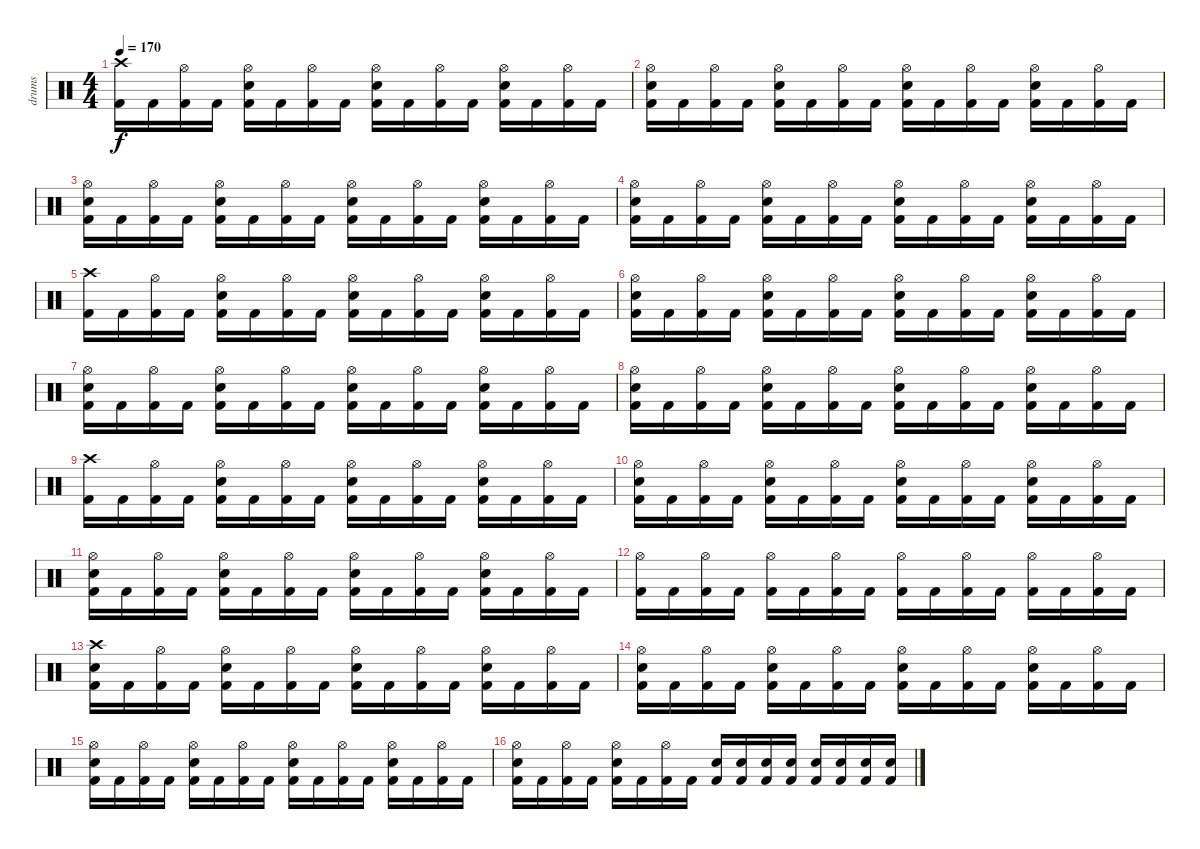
\track ("drums" "drums") {instrument percussion}
\staff {score}
\articulation defaults
\ts (4 4)
\tempo 170
\clef neutral
\ks c
("Crash high (hit)" "Kick (hit) 2").16{dy f} "Kick (hit) 2".16 ("Hi-Hat (open)" "Kick (hit) 2").16 "Kick (hit) 2".16 ("Hi-Hat (open)" "Electric Snare (hit)" "Kick (hit) 2").16 "Kick (hit) 2".16 ("Hi-Hat (open)" "Kick (hit) 2").16 "Kick (hit) 2".16 ("Hi-Hat (open)" "Electric Snare (hit)" "Kick (hit) 2").16 "Kick (hit) 2".16 ("Hi-Hat (open)" "Kick (hit) 2").16 "Kick (hit) 2".16 ("Hi-Hat (open)" "Electric Snare (hit)" "Kick (hit) 2").16 "Kick (hit) 2".16 ("Hi-Hat (open)" "Kick (hit) 2").16 "Kick (hit) 2".16 |
("Hi-Hat (open)" "Electric Snare (hit)" "Kick (hit) 2").16 "Kick (hit) 2".16 ("Hi-Hat (open)" "Kick (hit) 2").16 "Kick (hit) 2".16 ("Hi-Hat (open)" "Electric Snare (hit)" "Kick (hit) 2").16 "Kick (hit) 2".16 ("Hi-Hat (open)" "Kick (hit) 2").16 "Kick (hit) 2".16 ("Hi-Hat (open)" "Electric Snare (hit)" "Kick (hit) 2").16 "Kick (hit) 2".16 ("Hi-Hat (open)" "Kick (hit) 2").16 "Kick (hit) 2".16 ("Hi-Hat (open)" "Electric Snare (hit)" "Kick (hit) 2").16 "Kick (hit) 2".16 ("Hi-Hat (open)" "Kick (hit) 2").16 "Kick (hit) 2".16 |
("Hi-Hat (open)" "Electric Snare (hit)" "Kick (hit) 2").16 "Kick (hit) 2".16 ("Hi-Hat (open)" "Kick (hit) 2").16 "Kick (hit) 2".16 ("Hi-Hat (open)" "Electric Snare (hit)" "Kick (hit) 2").16 "Kick (hit) 2".16 ("Hi-Hat (open)" "Kick (hit) 2").16 "Kick (hit) 2".16 ("Hi-Hat (open)" "Electric Snare (hit)" "Kick (hit) 2").16 "Kick (hit) 2".16 ("Hi-Hat (open)" "Kick (hit) 2").16 "Kick (hit) 2".16 ("Hi-Hat (open)" "Electric Snare (hit)" "Kick (hit) 2").16 "Kick (hit) 2".16 ("Hi-Hat (open)" "Kick (hit) 2").16 "Kick (hit) 2".16 |
("Hi-Hat (open)" "Electric Snare (hit)" "Kick (hit) 2").16 "Kick (hit) 2".16 ("Hi-Hat (open)" "Kick (hit) 2").16 "Kick (hit) 2".16 ("Hi-Hat (open)" "Electric Snare (hit)" "Kick (hit) 2").16 "Kick (hit) 2".16 ("Hi-Hat (open)" "Kick (hit) 2").16 "Kick (hit) 2".16 ("Hi-Hat (open)" "Electric Snare (hit)" "Kick (hit) 2").16 "Kick (hit) 2".16 ("Hi-Hat (open)" "Kick (hit) 2").16 "Kick (hit) 2".16 ("Hi-Hat (open)" "Electric Snare (hit)" "Kick (hit) 2").16 "Kick (hit) 2".16 ("Hi-Hat (open)" "Kick (hit) 2").16 "Kick (hit) 2".16 |
("Crash high (hit)" "Kick (hit) 2").16 "Kick (hit) 2".16 ("Hi-Hat (open)" "Kick (hit) 2").16 "Kick (hit) 2".16 ("Hi-Hat (open)" "Electric Snare (hit)" "Kick (hit) 2").16 "Kick (hit) 2".16 ("Hi-Hat (open)" "Kick (hit) 2").16 "Kick (hit) 2".16 ("Hi-Hat (open)" "Electric Snare (hit)" "Kick (hit) 2").16 "Kick (hit) 2".16 ("Hi-Hat (open)" "Kick (hit) 2").16 "Kick (hit) 2".16 ("Hi-Hat (open)" "Electric Snare (hit)" "Kick (hit) 2").16 "Kick (hit) 2".16 ("Hi-Hat (open)" "Kick (hit) 2").16 "Kick (hit) 2".16 |
("Hi-Hat (open)" "Electric Snare (hit)" "Kick (hit) 2").16 "Kick (hit) 2".16 ("Hi-Hat (open)" "Kick (hit) 2").16 "Kick (hit) 2".16 ("Hi-Hat (open)" "Electric Snare (hit)" "Kick (hit) 2").16 "Kick (hit) 2".16 ("Hi-Hat (open)" "Kick (hit) 2").16 "Kick (hit) 2".16 ("Hi-Hat (open)" "Electric Snare (hit)" "Kick (hit) 2").16 "Kick (hit) 2".16 ("Hi-Hat (open)" "Kick (hit) 2").16 "Kick (hit) 2".16 ("Hi-Hat (open)" "Electric Snare (hit)" "Kick (hit) 2").16 "Kick (hit) 2".16 ("Hi-Hat (open)" "Kick (hit) 2").16 "Kick (hit) 2".16 |
("Hi-Hat (open)" "Electric Snare (hit)" "Kick (hit) 2").16 "Kick (hit) 2".16 ("Hi-Hat (open)" "Kick (hit) 2").16 "Kick (hit) 2".16 ("Hi-Hat (open)" "Electric Snare (hit)" "Kick (hit) 2").16 "Kick (hit) 2".16 ("Hi-Hat (open)" "Kick (hit) 2").16 "Kick (hit) 2".16 ("Hi-Hat (open)" "Electric Snare (hit)" "Kick (hit) 2").16 "Kick (hit) 2".16 ("Hi-Hat (open)" "Kick (hit) 2").16 "Kick (hit) 2".16 ("Hi-Hat (open)" "Electric Snare (hit)" "Kick (hit) 2").16 "Kick (hit) 2".16 ("Hi-Hat (open)" "Kick (hit) 2").16 "Kick (hit) 2".16 |
("Hi-Hat (open)" "Electric Snare (hit)" "Kick (hit) 2").16 "Kick (hit) 2".16 ("Hi-Hat (open)" "Kick (hit) 2").16 "Kick (hit) 2".16 ("Hi-Hat (open)" "Electric Snare (hit)" "Kick (hit) 2").16 "Kick (hit) 2".16 ("Hi-Hat (open)" "Kick (hit) 2").16 "Kick (hit) 2".16 ("Hi-Hat (open)" "Electric Snare (hit)" "Kick (hit) 2").16 "Kick (hit) 2".16 ("Hi-Hat (open)" "Kick (hit) 2").16 "Kick (hit) 2".16 ("Hi-Hat (open)" "Electric Snare (hit)" "Kick (hit) 2").16 "Kick (hit) 2".16 ("Hi-Hat (open)" "Kick (hit) 2").16 "Kick (hit) 2".16 |
("Crash high (hit)" "Kick (hit) 2").16 "Kick (hit) 2".16 ("Hi-Hat (open)" "Kick (hit) 2").16 "Kick (hit) 2".16 ("Hi-Hat (open)" "Electric Snare (hit)" "Kick (hit) 2").16 "Kick (hit) 2".16 ("Hi-Hat (open)" "Kick (hit) 2").16 "Kick (hit) 2".16 ("Hi-Hat (open)" "Electric Snare (hit)" "Kick (hit) 2").16 "Kick (hit) 2".16 ("Hi-Hat (open)" "Kick (hit) 2").16 "Kick (hit) 2".16 ("Hi-Hat (open)" "Electric Snare (hit)" "Kick (hit) 2").16 "Kick (hit) 2".16 ("Hi-Hat (open)" "Kick (hit) 2").16 "Kick (hit) 2".16 |
("Hi-Hat (open)" "Electric Snare (hit)" "Kick (hit) 2").16 "Kick (hit) 2".16 ("Hi-Hat (open)" "Kick (hit) 2").16 "Kick (hit) 2".16 ("Hi-Hat (open)" "Electric Snare (hit)" "Kick (hit) 2").16 "Kick (hit) 2".16 ("Hi-Hat (open)" "Kick (hit) 2").16 "Kick (hit) 2".16 ("Hi-Hat (open)" "Electric Snare (hit)" "Kick (hit) 2").16 "Kick (hit) 2".16 ("Hi-Hat (open)" "Kick (hit) 2").16 "Kick (hit) 2".16 ("Hi-Hat (open)" "Electric Snare (hit)" "Kick (hit) 2").16 "Kick (hit) 2".16 ("Hi-Hat (open)" "Kick (hit) 2").16 "Kick (hit) 2".16 |
("Hi-Hat (open)" "Electric Snare (hit)" "Kick (hit) 2").16 "Kick (hit) 2".16 ("Hi-Hat (open)" "Kick (hit) 2").16 "Kick (hit) 2".16 ("Hi-Hat (open)" "Electric Snare (hit)" "Kick (hit) 2").16 "Kick (hit) 2".16 ("Hi-Hat (open)" "Kick (hit) 2").16 "Kick (hit) 2".16 ("Hi-Hat (open)" "Electric Snare (hit)" "Kick (hit) 2").16 "Kick (hit) 2".16 ("Hi-Hat (open)" "Kick (hit) 2").16 "Kick (hit) 2".16 ("Hi-Hat (open)" "Electric Snare (hit)" "Kick (hit) 2").16 "Kick (hit) 2".16 ("Hi-Hat (open)" "Kick (hit) 2").16 "Kick (hit) 2".16 |
("Hi-Hat (open)" "Kick (hit) 2").16 "Kick (hit) 2".16 ("Hi-Hat (open)" "Kick (hit) 2").16 "Kick (hit) 2".16 ("Hi-Hat (open)" "Kick (hit) 2").16 "Kick (hit) 2".16 ("Hi-Hat (open)" "Kick (hit) 2").16 "Kick (hit) 2".16 ("Hi-Hat (open)" "Kick (hit) 2").16 "Kick (hit) 2".16 ("Hi-Hat (open)" "Kick (hit) 2").16 "Kick (hit) 2".16 ("Hi-Hat (open)" "Kick (hit) 2").16 "Kick (hit) 2".16 ("Hi-Hat (open)" "Kick (hit) 2").16 "Kick (hit) 2".16 |
("Crash high (hit)" "Electric Snare (hit)" "Kick (hit) 2").16 "Kick (hit) 2".16 ("Hi-Hat (open)" "Kick (hit) 2").16 "Kick (hit) 2".16 ("Hi-Hat (open)" "Electric Snare (hit)" "Kick (hit) 2").16 "Kick (hit) 2".16 ("Hi-Hat (open)" "Kick (hit) 2").16 "Kick (hit) 2".16 ("Hi-Hat (open)" "Electric Snare (hit)" "Kick (hit) 2").16 "Kick (hit) 2".16 ("Hi-Hat (open)" "Kick (hit) 2").16 "Kick (hit) 2".16 ("Hi-Hat (open)" "Electric Snare (hit)" "Kick (hit) 2").16 "Kick (hit) 2".16 ("Hi-Hat (open)" "Kick (hit) 2").16 "Kick (hit) 2".16 |
("Hi-Hat (open)" "Electric Snare (hit)" "Kick (hit) 2").16 "Kick (hit) 2".16 ("Hi-Hat (open)" "Kick (hit) 2").16 "Kick (hit) 2".16 ("Hi-Hat (open)" "Electric Snare (hit)" "Kick (hit) 2").16 "Kick (hit) 2".16 ("Hi-Hat (open)" "Kick (hit) 2").16 "Kick (hit) 2".16 ("Hi-Hat (open)" "Electric Snare (hit)" "Kick (hit) 2").16 "Kick (hit) 2".16 ("Hi-Hat (open)" "Kick (hit) 2").16 "Kick (hit) 2".16 ("Hi-Hat (open)" "Electric Snare (hit)" "Kick (hit) 2").16 "Kick (hit) 2".16 ("Hi-Hat (open)" "Kick (hit) 2").16 "Kick (hit) 2".16 |
("Hi-Hat (open)" "Electric Snare (hit)" "Kick (hit) 2").16 "Kick (hit) 2".16 ("Hi-Hat (open)" "Kick (hit) 2").16 "Kick (hit) 2".16 ("Hi-Hat (open)" "Electric Snare (hit)" "Kick (hit) 2").16 "Kick (hit) 2".16 ("Hi-Hat (open)" "Kick (hit) 2").16 "Kick (hit) 2".16 ("Hi-Hat (open)" "Electric Snare (hit)" "Kick (hit) 2").16 "Kick (hit) 2".16 ("Hi-Hat (open)" "Kick (hit) 2").16 "Kick (hit) 2".16 ("Hi-Hat (open)" "Electric Snare (hit)" "Kick (hit) 2").16 "Kick (hit) 2".16 ("Hi-Hat (open)" "Kick (hit) 2").16 "Kick (hit) 2".16 |
("Hi-Hat (open)" "Electric Snare (hit)" "Kick (hit) 2").16 "Kick (hit) 2".16 ("Hi-Hat (open)" "Kick (hit) 2").16 "Kick (hit) 2".16 ("Hi-Hat (open)" "Electric Snare (hit)" "Kick (hit) 2").16 "Kick (hit) 2".16 ("Hi-Hat (open)" "Kick (hit) 2").16 "Kick (hit) 2".16 ("Electric Snare (hit)" "Kick (hit) 2").16 ("Electric Snare (hit)" "Kick (hit) 2").16 ("Electric Snare (hit)" "Kick (hit) 2").16 ("Electric Snare (hit)" "Kick (hit) 2").16 ("Electric Snare (hit)" "Kick (hit) 2").16 ("Electric Snare (hit)" "Kick (hit) 2").16 ("Electric Snare (hit)" "Kick (hit) 2").16 ("Electric Snare (hit)" "Kick (hit) 2").16
